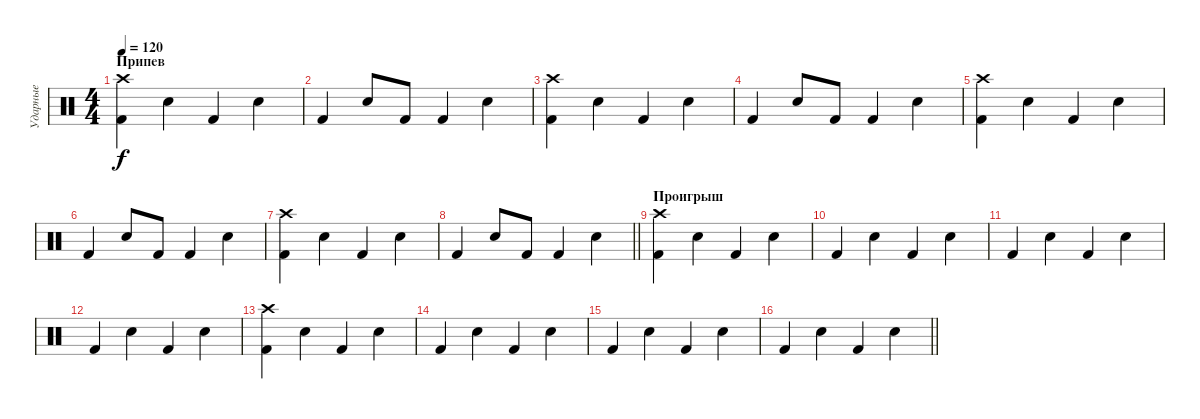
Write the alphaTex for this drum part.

\track ("Ударные" "Ударные") {instrument percussion}
\staff {score}
\articulation defaults
\ts (4 4)
\section ("" "Припев")
\tempo 120
\clef neutral
\ks c
("Kick (hit) 2" "Crash high (hit)").4{dy f} "Electric Snare (hit)".4 "Kick (hit) 2".4 "Electric Snare (hit)".4 |
"Kick (hit) 2".4 "Electric Snare (hit)".8 "Kick (hit) 2".8 "Kick (hit) 2".4 "Electric Snare (hit)".4 |
("Kick (hit) 2" "Crash high (hit)").4 "Electric Snare (hit)".4 "Kick (hit) 2".4 "Electric Snare (hit)".4 |
"Kick (hit) 2".4 "Electric Snare (hit)".8 "Kick (hit) 2".8 "Kick (hit) 2".4 "Electric Snare (hit)".4 |
("Kick (hit) 2" "Crash high (hit)").4 "Electric Snare (hit)".4 "Kick (hit) 2".4 "Electric Snare (hit)".4 |
"Kick (hit) 2".4 "Electric Snare (hit)".8 "Kick (hit) 2".8 "Kick (hit) 2".4 "Electric Snare (hit)".4 |
("Kick (hit) 2" "Crash high (hit)").4 "Electric Snare (hit)".4 "Kick (hit) 2".4 "Electric Snare (hit)".4 |
\barLineRight lightlight "Kick (hit) 2".4 "Electric Snare (hit)".8 "Kick (hit) 2".8 "Kick (hit) 2".4 "Electric Snare (hit)".4
|
\section ("" "Проигрыш")
("Kick (hit) 2" "Crash high (hit)").4 "Electric Snare (hit)".4 "Kick (hit) 2".4 "Electric Snare (hit)".4 |
"Kick (hit) 2".4 "Electric Snare (hit)".4 "Kick (hit) 2".4 "Electric Snare (hit)".4 |
"Kick (hit) 2".4 "Electric Snare (hit)".4 "Kick (hit) 2".4 "Electric Snare (hit)".4 |
"Kick (hit) 2".4 "Electric Snare (hit)".4 "Kick (hit) 2".4 "Electric Snare (hit)".4 |
("Kick (hit) 2" "Crash high (hit)").4 "Electric Snare (hit)".4 "Kick (hit) 2".4 "Electric Snare (hit)".4 |
"Kick (hit) 2".4 "Electric Snare (hit)".4 "Kick (hit) 2".4 "Electric Snare (hit)".4 |
"Kick (hit) 2".4 "Electric Snare (hit)".4 "Kick (hit) 2".4 "Electric Snare (hit)".4 |
\barLineRight lightlight "Kick (hit) 2".4 "Electric Snare (hit)".4 "Kick (hit) 2".4 "Electric Snare (hit)".4
